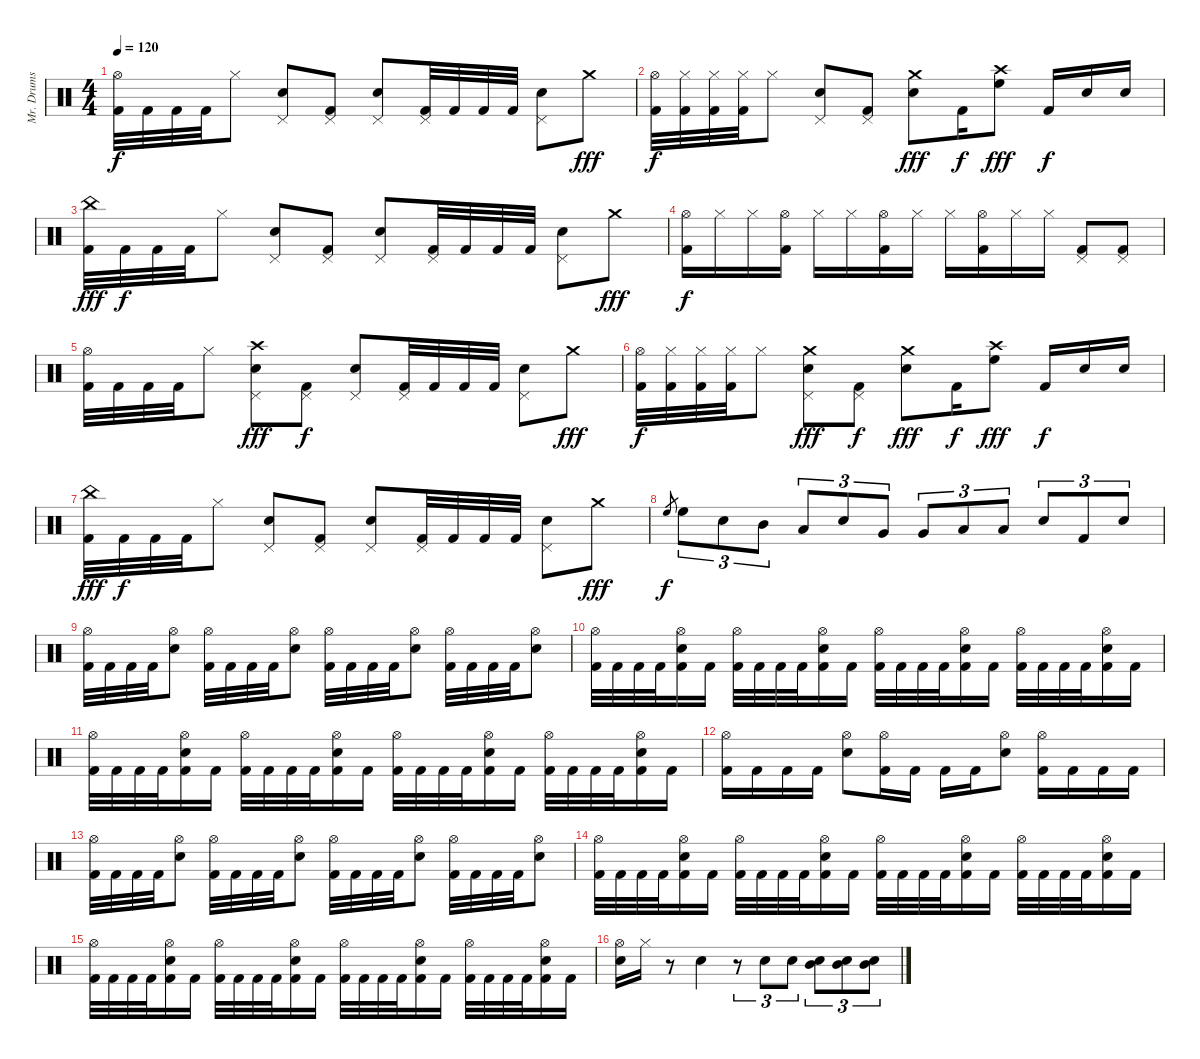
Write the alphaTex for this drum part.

\track ("Mr. Drums" "Mr. Drums") {instrument percussion}
\staff {score}
\articulation defaults
\ts (4 4)
\tempo 120
\clef neutral
\ks c
("Hi-Hat (open)" "Kick (hit) 2").32{dy f} "Kick (hit) 2".32 "Kick (hit) 2".32 "Kick (hit) 2".32 "Hi-Hat (closed)".8 ("Pedal Hi-Hat (hit)" "Electric Snare (hit)").8 ("Pedal Hi-Hat (hit)" "Kick (hit) 2").8 ("Pedal Hi-Hat (hit)" "Electric Snare (hit)").8 ("Pedal Hi-Hat (hit)" "Kick (hit) 2").32 "Kick (hit) 2".32 "Kick (hit) 2".32 "Kick (hit) 2".32 ("Pedal Hi-Hat (hit)" "Electric Snare (hit)").8 "Crash medium (hit)".8{dy fff} |
("Hi-Hat (open)" "Kick (hit) 2").32{dy f} ("Hi-Hat (closed)" "Kick (hit) 2").32 ("Hi-Hat (closed)" "Kick (hit) 2").32 ("Hi-Hat (closed)" "Kick (hit) 2").32 "Hi-Hat (closed)".8 ("Pedal Hi-Hat (hit)" "Electric Snare (hit)").8 ("Pedal Hi-Hat (hit)" "Kick (hit) 2").8 ("Crash medium (hit)" "Electric Snare (hit)").8{dy fff} "Kick (hit) 2".16{dy f} ("Crash high (hit)" "High Floor Tom (hit)").8{dy fff} "Kick (hit) 2".16{dy f} "Electric Snare (hit)".16 "Electric Snare (hit)".16 |
("China (hit)" "Kick (hit) 2").32{dy fff} "Kick (hit) 2".32{dy f} "Kick (hit) 2".32 "Kick (hit) 2".32 "Hi-Hat (closed)".8 ("Pedal Hi-Hat (hit)" "Electric Snare (hit)").8 ("Pedal Hi-Hat (hit)" "Kick (hit) 2").8 ("Pedal Hi-Hat (hit)" "Electric Snare (hit)").8 ("Pedal Hi-Hat (hit)" "Kick (hit) 2").32 "Kick (hit) 2".32 "Kick (hit) 2".32 "Kick (hit) 2".32 ("Pedal Hi-Hat (hit)" "Electric Snare (hit)").8 "Crash medium (hit)".8{dy fff} |
("Hi-Hat (open)" "Kick (hit) 2").16{dy f} "Hi-Hat (closed)".16 "Hi-Hat (closed)".16 ("Hi-Hat (open)" "Kick (hit) 2").16 "Hi-Hat (closed)".16 "Hi-Hat (closed)".16 ("Hi-Hat (open)" "Kick (hit) 2").16 "Hi-Hat (closed)".16 "Hi-Hat (closed)".16 ("Hi-Hat (open)" "Kick (hit) 2").16 "Hi-Hat (closed)".16 "Hi-Hat (closed)".16 ("Pedal Hi-Hat (hit)" "Kick (hit) 2").8 ("Pedal Hi-Hat (hit)" "Kick (hit) 2").8 |
("Hi-Hat (open)" "Kick (hit) 2").32 "Kick (hit) 2".32 "Kick (hit) 2".32 "Kick (hit) 2".32 "Hi-Hat (closed)".8 ("Crash high (hit)" "Pedal Hi-Hat (hit)" "Electric Snare (hit)").8{dy fff} ("Pedal Hi-Hat (hit)" "Kick (hit) 2").8{dy f} ("Pedal Hi-Hat (hit)" "Electric Snare (hit)").8 ("Pedal Hi-Hat (hit)" "Kick (hit) 2").32 "Kick (hit) 2".32 "Kick (hit) 2".32 "Kick (hit) 2".32 ("Pedal Hi-Hat (hit)" "Electric Snare (hit)").8 "Crash medium (hit)".8{dy fff} |
("Hi-Hat (open)" "Kick (hit) 2").32{dy f} ("Hi-Hat (closed)" "Kick (hit) 2").32 ("Hi-Hat (closed)" "Kick (hit) 2").32 ("Hi-Hat (closed)" "Kick (hit) 2").32 "Hi-Hat (closed)".8 ("Crash medium (hit)" "Pedal Hi-Hat (hit)" "Electric Snare (hit)").8{dy fff} ("Pedal Hi-Hat (hit)" "Kick (hit) 2").8{dy f} ("Crash medium (hit)" "Electric Snare (hit)").8{dy fff} "Kick (hit) 2".16{dy f} ("Crash high (hit)" "High Floor Tom (hit)").8{dy fff} "Kick (hit) 2".16{dy f} "Electric Snare (hit)".16 "Electric Snare (hit)".16 |
("China (hit)" "Kick (hit) 2").32{dy fff} "Kick (hit) 2".32{dy f} "Kick (hit) 2".32 "Kick (hit) 2".32 "Hi-Hat (closed)".8 ("Pedal Hi-Hat (hit)" "Electric Snare (hit)").8 ("Pedal Hi-Hat (hit)" "Kick (hit) 2").8 ("Pedal Hi-Hat (hit)" "Electric Snare (hit)").8 ("Pedal Hi-Hat (hit)" "Kick (hit) 2").32 "Kick (hit) 2".32 "Kick (hit) 2".32 "Kick (hit) 2".32 ("Pedal Hi-Hat (hit)" "Electric Snare (hit)").8 "Crash medium (hit)".8{dy fff} |
"High Floor Tom (hit)".8{gr dy f} "High Floor Tom (hit)".8{tu (3 2)} "Electric Snare (hit)".8{tu (3 2)} "Mid Tom (hit)".8{tu (3 2)} "Low Tom (hit)".8{tu (3 2)} "Electric Snare (hit)".8{tu (3 2)} "Very Low Tom (hit)".8{tu (3 2)} "Very Low Tom (hit)".8{tu (3 2)} "Low Floor Tom (hit)".8{tu (3 2)} "Low Floor Tom (hit)".8{tu (3 2)} "Electric Snare (hit)".8{tu (3 2)} "Kick (hit) 2".8{tu (3 2)} "Electric Snare (hit)".8{tu (3 2)} |
("Hi-Hat (open)" "Kick (hit) 2").32 "Kick (hit) 2".32 "Kick (hit) 2".32 "Kick (hit) 2".32 ("Hi-Hat (open)" "Electric Snare (hit)").8 ("Hi-Hat (open)" "Kick (hit) 2").32 "Kick (hit) 2".32 "Kick (hit) 2".32 "Kick (hit) 2".32 ("Hi-Hat (open)" "Electric Snare (hit)").8 ("Hi-Hat (open)" "Kick (hit) 2").32 "Kick (hit) 2".32 "Kick (hit) 2".32 "Kick (hit) 2".32 ("Hi-Hat (open)" "Electric Snare (hit)").8 ("Hi-Hat (open)" "Kick (hit) 2").32 "Kick (hit) 2".32 "Kick (hit) 2".32 "Kick (hit) 2".32 ("Hi-Hat (open)" "Electric Snare (hit)").8 |
("Hi-Hat (open)" "Kick (hit) 2").32 "Kick (hit) 2".32 "Kick (hit) 2".32 "Kick (hit) 2".32 ("Hi-Hat (open)" "Electric Snare (hit)" "Kick (hit) 2").16 "Kick (hit) 2".16 ("Hi-Hat (open)" "Kick (hit) 2").32 "Kick (hit) 2".32 "Kick (hit) 2".32 "Kick (hit) 2".32 ("Hi-Hat (open)" "Electric Snare (hit)" "Kick (hit) 2").16 "Kick (hit) 2".16 ("Hi-Hat (open)" "Kick (hit) 2").32 "Kick (hit) 2".32 "Kick (hit) 2".32 "Kick (hit) 2".32 ("Hi-Hat (open)" "Electric Snare (hit)" "Kick (hit) 2").16 "Kick (hit) 2".16 ("Hi-Hat (open)" "Kick (hit) 2").32 "Kick (hit) 2".32 "Kick (hit) 2".32 "Kick (hit) 2".32 ("Hi-Hat (open)" "Electric Snare (hit)" "Kick (hit) 2").16 "Kick (hit) 2".16 |
("Hi-Hat (open)" "Kick (hit) 2").32 "Kick (hit) 2".32 "Kick (hit) 2".32 "Kick (hit) 2".32 ("Hi-Hat (open)" "Electric Snare (hit)" "Kick (hit) 2").16 "Kick (hit) 2".16 ("Hi-Hat (open)" "Kick (hit) 2").32 "Kick (hit) 2".32 "Kick (hit) 2".32 "Kick (hit) 2".32 ("Hi-Hat (open)" "Electric Snare (hit)" "Kick (hit) 2").16 "Kick (hit) 2".16 ("Hi-Hat (open)" "Kick (hit) 2").32 "Kick (hit) 2".32 "Kick (hit) 2".32 "Kick (hit) 2".32 ("Hi-Hat (open)" "Electric Snare (hit)" "Kick (hit) 2").16 "Kick (hit) 2".16 ("Hi-Hat (open)" "Kick (hit) 2").32 "Kick (hit) 2".32 "Kick (hit) 2".32 "Kick (hit) 2".32 ("Hi-Hat (open)" "Electric Snare (hit)" "Kick (hit) 2").16 "Kick (hit) 2".16 |
("Hi-Hat (open)" "Kick (hit) 2").16 "Kick (hit) 2".16 "Kick (hit) 2".16 "Kick (hit) 2".16 ("Hi-Hat (open)" "Electric Snare (hit)").8 ("Hi-Hat (open)" "Kick (hit) 2").16 "Kick (hit) 2".16 "Kick (hit) 2".16 "Kick (hit) 2".16 ("Hi-Hat (open)" "Electric Snare (hit)").8 ("Hi-Hat (open)" "Kick (hit) 2").16 "Kick (hit) 2".16 "Kick (hit) 2".16 "Kick (hit) 2".16 |
("Hi-Hat (open)" "Kick (hit) 2").32 "Kick (hit) 2".32 "Kick (hit) 2".32 "Kick (hit) 2".32 ("Hi-Hat (open)" "Electric Snare (hit)").8 ("Hi-Hat (open)" "Kick (hit) 2").32 "Kick (hit) 2".32 "Kick (hit) 2".32 "Kick (hit) 2".32 ("Hi-Hat (open)" "Electric Snare (hit)").8 ("Hi-Hat (open)" "Kick (hit) 2").32 "Kick (hit) 2".32 "Kick (hit) 2".32 "Kick (hit) 2".32 ("Hi-Hat (open)" "Electric Snare (hit)").8 ("Hi-Hat (open)" "Kick (hit) 2").32 "Kick (hit) 2".32 "Kick (hit) 2".32 "Kick (hit) 2".32 ("Hi-Hat (open)" "Electric Snare (hit)").8 |
("Hi-Hat (open)" "Kick (hit) 2").32 "Kick (hit) 2".32 "Kick (hit) 2".32 "Kick (hit) 2".32 ("Hi-Hat (open)" "Electric Snare (hit)" "Kick (hit) 2").16 "Kick (hit) 2".16 ("Hi-Hat (open)" "Kick (hit) 2").32 "Kick (hit) 2".32 "Kick (hit) 2".32 "Kick (hit) 2".32 ("Hi-Hat (open)" "Electric Snare (hit)" "Kick (hit) 2").16 "Kick (hit) 2".16 ("Hi-Hat (open)" "Kick (hit) 2").32 "Kick (hit) 2".32 "Kick (hit) 2".32 "Kick (hit) 2".32 ("Hi-Hat (open)" "Electric Snare (hit)" "Kick (hit) 2").16 "Kick (hit) 2".16 ("Hi-Hat (open)" "Kick (hit) 2").32 "Kick (hit) 2".32 "Kick (hit) 2".32 "Kick (hit) 2".32 ("Hi-Hat (open)" "Electric Snare (hit)" "Kick (hit) 2").16 "Kick (hit) 2".16 |
("Hi-Hat (open)" "Kick (hit) 2").32 "Kick (hit) 2".32 "Kick (hit) 2".32 "Kick (hit) 2".32 ("Hi-Hat (open)" "Electric Snare (hit)" "Kick (hit) 2").16 "Kick (hit) 2".16 ("Hi-Hat (open)" "Kick (hit) 2").32 "Kick (hit) 2".32 "Kick (hit) 2".32 "Kick (hit) 2".32 ("Hi-Hat (open)" "Electric Snare (hit)" "Kick (hit) 2").16 "Kick (hit) 2".16 ("Hi-Hat (open)" "Kick (hit) 2").32 "Kick (hit) 2".32 "Kick (hit) 2".32 "Kick (hit) 2".32 ("Hi-Hat (open)" "Electric Snare (hit)" "Kick (hit) 2").16 "Kick (hit) 2".16 ("Hi-Hat (open)" "Kick (hit) 2").32 "Kick (hit) 2".32 "Kick (hit) 2".32 "Kick (hit) 2".32 ("Hi-Hat (open)" "Electric Snare (hit)" "Kick (hit) 2").16 "Kick (hit) 2".16 |
("Metronome (bell)" "Hi-Hat (open)").16 "Hi-Hat (closed)".16 r.8 "Electric Snare (hit)".4 r.8{tu (3 2)} "Electric Snare (hit)".8{tu (3 2)} "Electric Snare (hit)".8{tu (3 2)} ("Mid Tom (hit)" "Electric Snare (hit)").8{tu (3 2)} ("Mid Tom (hit)" "Electric Snare (hit)").8{tu (3 2)} ("Mid Tom (hit)" "Electric Snare (hit)").8{tu (3 2)}
